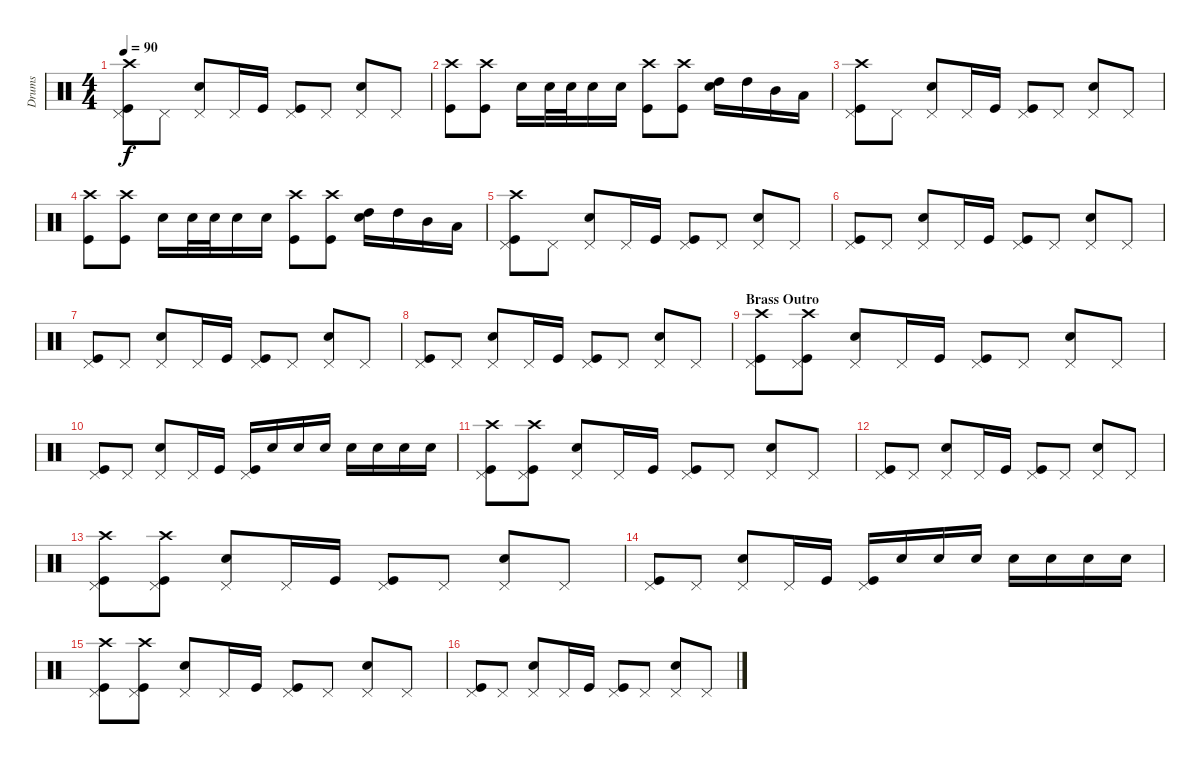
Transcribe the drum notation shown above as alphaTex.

\track ("Drums" "Drums") {instrument percussion}
\staff {score}
\articulation defaults
\ts (4 4)
\tempo 90
\clef neutral
\ks c
("Pedal Hi-Hat (hit)" "Kick (hit)" "Crash high (hit)").8{dy f} "Pedal Hi-Hat (hit)".8 ("Pedal Hi-Hat (hit)" "Snare (hit) 2").8 "Pedal Hi-Hat (hit)".16 "Kick (hit)".16 ("Pedal Hi-Hat (hit)" "Kick (hit)").8 "Pedal Hi-Hat (hit)".8 ("Pedal Hi-Hat (hit)" "Snare (hit) 2").8 "Pedal Hi-Hat (hit)".8 |
("Kick (hit)" "Crash high (hit)").8 ("Kick (hit)" "Crash high (hit)").8 "Snare (hit) 2".16 "Snare (hit) 2".32 "Snare (hit) 2".32 "Snare (hit) 2".16 "Snare (hit) 2".16 ("Kick (hit)" "Crash high (hit)").8 ("Kick (hit)" "Crash high (hit)").8 ("Snare (hit) 2" "High Tom (hit)").16 "High Tom (hit)".16 "Mid Tom (hit)".16 "Low Tom (hit)".16 |
("Pedal Hi-Hat (hit)" "Kick (hit)" "Crash high (hit)").8 "Pedal Hi-Hat (hit)".8 ("Pedal Hi-Hat (hit)" "Snare (hit) 2").8 "Pedal Hi-Hat (hit)".16 "Kick (hit)".16 ("Pedal Hi-Hat (hit)" "Kick (hit)").8 "Pedal Hi-Hat (hit)".8 ("Pedal Hi-Hat (hit)" "Snare (hit) 2").8 "Pedal Hi-Hat (hit)".8 |
("Kick (hit)" "Crash high (hit)").8 ("Kick (hit)" "Crash high (hit)").8 "Snare (hit) 2".16 "Snare (hit) 2".32 "Snare (hit) 2".32 "Snare (hit) 2".16 "Snare (hit) 2".16 ("Kick (hit)" "Crash high (hit)").8 ("Kick (hit)" "Crash high (hit)").8 ("Snare (hit) 2" "High Tom (hit)").16 "High Tom (hit)".16 "Mid Tom (hit)".16 "Low Tom (hit)".16 |
("Pedal Hi-Hat (hit)" "Kick (hit)" "Crash high (hit)").8 "Pedal Hi-Hat (hit)".8 ("Pedal Hi-Hat (hit)" "Snare (hit) 2").8 "Pedal Hi-Hat (hit)".16 "Kick (hit)".16 ("Pedal Hi-Hat (hit)" "Kick (hit)").8 "Pedal Hi-Hat (hit)".8 ("Pedal Hi-Hat (hit)" "Snare (hit) 2").8 "Pedal Hi-Hat (hit)".8 |
("Pedal Hi-Hat (hit)" "Kick (hit)").8 "Pedal Hi-Hat (hit)".8 ("Pedal Hi-Hat (hit)" "Snare (hit) 2").8 "Pedal Hi-Hat (hit)".16 "Kick (hit)".16 ("Pedal Hi-Hat (hit)" "Kick (hit)").8 "Pedal Hi-Hat (hit)".8 ("Pedal Hi-Hat (hit)" "Snare (hit) 2").8 "Pedal Hi-Hat (hit)".8 |
("Pedal Hi-Hat (hit)" "Kick (hit)").8 "Pedal Hi-Hat (hit)".8 ("Pedal Hi-Hat (hit)" "Snare (hit) 2").8 "Pedal Hi-Hat (hit)".16 "Kick (hit)".16 ("Pedal Hi-Hat (hit)" "Kick (hit)").8 "Pedal Hi-Hat (hit)".8 ("Pedal Hi-Hat (hit)" "Snare (hit) 2").8 "Pedal Hi-Hat (hit)".8 |
("Pedal Hi-Hat (hit)" "Kick (hit)").8 "Pedal Hi-Hat (hit)".8 ("Pedal Hi-Hat (hit)" "Snare (hit) 2").8 "Pedal Hi-Hat (hit)".16 "Kick (hit)".16 ("Pedal Hi-Hat (hit)" "Kick (hit)").8 "Pedal Hi-Hat (hit)".8 ("Pedal Hi-Hat (hit)" "Snare (hit) 2").8 "Pedal Hi-Hat (hit)".8 |
\section ("" "Brass Outro")
("Pedal Hi-Hat (hit)" "Kick (hit)" "Crash high (hit)").8 ("Pedal Hi-Hat (hit)" "Kick (hit)" "Crash high (hit)").8 ("Pedal Hi-Hat (hit)" "Snare (hit) 2").8 "Pedal Hi-Hat (hit)".16 "Kick (hit)".16 ("Pedal Hi-Hat (hit)" "Kick (hit)").8 "Pedal Hi-Hat (hit)".8 ("Pedal Hi-Hat (hit)" "Snare (hit) 2").8 "Pedal Hi-Hat (hit)".8 |
("Pedal Hi-Hat (hit)" "Kick (hit)").8 "Pedal Hi-Hat (hit)".8 ("Pedal Hi-Hat (hit)" "Snare (hit) 2").8 "Pedal Hi-Hat (hit)".16 "Kick (hit)".16 ("Pedal Hi-Hat (hit)" "Kick (hit)").16 "Snare (hit) 2".16 "Snare (hit) 2".16 "Snare (hit) 2".16 "Snare (hit) 2".16 "Snare (hit) 2".16 "Snare (hit) 2".16 "Snare (hit) 2".16 |
("Pedal Hi-Hat (hit)" "Kick (hit)" "Crash high (hit)").8 ("Pedal Hi-Hat (hit)" "Kick (hit)" "Crash high (hit)").8 ("Pedal Hi-Hat (hit)" "Snare (hit) 2").8 "Pedal Hi-Hat (hit)".16 "Kick (hit)".16 ("Pedal Hi-Hat (hit)" "Kick (hit)").8 "Pedal Hi-Hat (hit)".8 ("Pedal Hi-Hat (hit)" "Snare (hit) 2").8 "Pedal Hi-Hat (hit)".8 |
("Pedal Hi-Hat (hit)" "Kick (hit)").8 "Pedal Hi-Hat (hit)".8 ("Pedal Hi-Hat (hit)" "Snare (hit) 2").8 "Pedal Hi-Hat (hit)".16 "Kick (hit)".16 ("Pedal Hi-Hat (hit)" "Kick (hit)").8 "Pedal Hi-Hat (hit)".8 ("Pedal Hi-Hat (hit)" "Snare (hit) 2").8 "Pedal Hi-Hat (hit)".8 |
("Pedal Hi-Hat (hit)" "Kick (hit)" "Crash high (hit)").8 ("Pedal Hi-Hat (hit)" "Kick (hit)" "Crash high (hit)").8 ("Pedal Hi-Hat (hit)" "Snare (hit) 2").8 "Pedal Hi-Hat (hit)".16 "Kick (hit)".16 ("Pedal Hi-Hat (hit)" "Kick (hit)").8 "Pedal Hi-Hat (hit)".8 ("Pedal Hi-Hat (hit)" "Snare (hit) 2").8 "Pedal Hi-Hat (hit)".8 |
("Pedal Hi-Hat (hit)" "Kick (hit)").8 "Pedal Hi-Hat (hit)".8 ("Pedal Hi-Hat (hit)" "Snare (hit) 2").8 "Pedal Hi-Hat (hit)".16 "Kick (hit)".16 ("Pedal Hi-Hat (hit)" "Kick (hit)").16 "Snare (hit) 2".16 "Snare (hit) 2".16 "Snare (hit) 2".16 "Snare (hit) 2".16 "Snare (hit) 2".16 "Snare (hit) 2".16 "Snare (hit) 2".16 |
("Pedal Hi-Hat (hit)" "Kick (hit)" "Crash high (hit)").8 ("Pedal Hi-Hat (hit)" "Kick (hit)" "Crash high (hit)").8 ("Pedal Hi-Hat (hit)" "Snare (hit) 2").8 "Pedal Hi-Hat (hit)".16 "Kick (hit)".16 ("Pedal Hi-Hat (hit)" "Kick (hit)").8 "Pedal Hi-Hat (hit)".8 ("Pedal Hi-Hat (hit)" "Snare (hit) 2").8 "Pedal Hi-Hat (hit)".8 |
("Pedal Hi-Hat (hit)" "Kick (hit)").8 "Pedal Hi-Hat (hit)".8 ("Pedal Hi-Hat (hit)" "Snare (hit) 2").8 "Pedal Hi-Hat (hit)".16 "Kick (hit)".16 ("Pedal Hi-Hat (hit)" "Kick (hit)").8 "Pedal Hi-Hat (hit)".8 ("Pedal Hi-Hat (hit)" "Snare (hit) 2").8 "Pedal Hi-Hat (hit)".8
